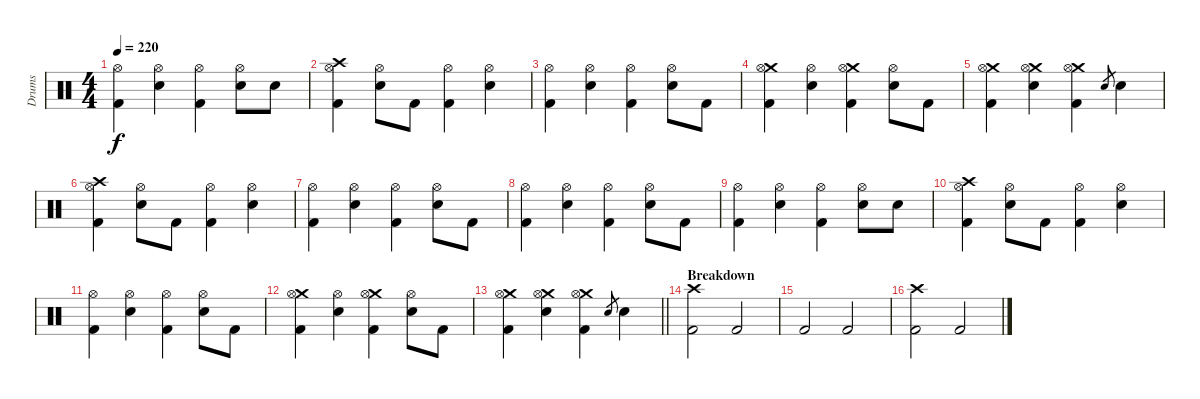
\track ("Drums" "Drums") {instrument percussion}
\staff {score}
\articulation defaults
\ts (4 4)
\tempo 220
\clef neutral
\ks c
("Hi-Hat (open)" "Kick (hit) 2").4{dy f} ("Hi-Hat (open)" "Snare (hit) 2").4 ("Hi-Hat (open)" "Kick (hit) 2").4 ("Hi-Hat (open)" "Snare (hit) 2").8 "Snare (hit) 2".8 |
("Crash high (hit)" "Hi-Hat (open)" "Kick (hit) 2").4 ("Hi-Hat (open)" "Snare (hit) 2").8 "Kick (hit) 2".8 ("Hi-Hat (open)" "Kick (hit) 2").4 ("Hi-Hat (open)" "Snare (hit) 2").4 |
("Hi-Hat (open)" "Kick (hit) 2").4 ("Hi-Hat (open)" "Snare (hit) 2").4 ("Hi-Hat (open)" "Kick (hit) 2").4 ("Hi-Hat (open)" "Snare (hit) 2").8 "Kick (hit) 2".8 |
("Crash medium (hit)" "Hi-Hat (open)" "Kick (hit) 2").4 ("Hi-Hat (open)" "Snare (hit) 2").4 ("Crash medium (hit)" "Hi-Hat (open)" "Kick (hit) 2").4 ("Hi-Hat (open)" "Snare (hit) 2").8 "Kick (hit) 2".8 |
("Crash medium (hit)" "Hi-Hat (open)" "Kick (hit) 2").4 ("Crash medium (hit)" "Hi-Hat (open)" "Snare (hit) 2").4 ("Crash medium (hit)" "Hi-Hat (open)" "Kick (hit) 2").4 "Snare (hit) 2".8{gr} "Snare (hit) 2".4 |
("Crash high (hit)" "Hi-Hat (open)" "Kick (hit) 2").4 ("Hi-Hat (open)" "Snare (hit) 2").8 "Kick (hit) 2".8 ("Hi-Hat (open)" "Kick (hit) 2").4 ("Hi-Hat (open)" "Snare (hit) 2").4 |
("Hi-Hat (open)" "Kick (hit) 2").4 ("Hi-Hat (open)" "Snare (hit) 2").4 ("Hi-Hat (open)" "Kick (hit) 2").4 ("Hi-Hat (open)" "Snare (hit) 2").8 "Kick (hit) 2".8 |
("Hi-Hat (open)" "Kick (hit) 2").4 ("Hi-Hat (open)" "Snare (hit) 2").4 ("Hi-Hat (open)" "Kick (hit) 2").4 ("Hi-Hat (open)" "Snare (hit) 2").8 "Kick (hit) 2".8 |
("Hi-Hat (open)" "Kick (hit) 2").4 ("Hi-Hat (open)" "Snare (hit) 2").4 ("Hi-Hat (open)" "Kick (hit) 2").4 ("Hi-Hat (open)" "Snare (hit) 2").8 "Snare (hit) 2".8 |
("Crash high (hit)" "Hi-Hat (open)" "Kick (hit) 2").4 ("Hi-Hat (open)" "Snare (hit) 2").8 "Kick (hit) 2".8 ("Hi-Hat (open)" "Kick (hit) 2").4 ("Hi-Hat (open)" "Snare (hit) 2").4 |
("Hi-Hat (open)" "Kick (hit) 2").4 ("Hi-Hat (open)" "Snare (hit) 2").4 ("Hi-Hat (open)" "Kick (hit) 2").4 ("Hi-Hat (open)" "Snare (hit) 2").8 "Kick (hit) 2".8 |
("Crash medium (hit)" "Hi-Hat (open)" "Kick (hit) 2").4 ("Hi-Hat (open)" "Snare (hit) 2").4 ("Crash medium (hit)" "Hi-Hat (open)" "Kick (hit) 2").4 ("Hi-Hat (open)" "Snare (hit) 2").8 "Kick (hit) 2".8 |
\barLineRight lightlight
("Crash medium (hit)" "Hi-Hat (open)" "Kick (hit) 2").4 ("Crash medium (hit)" "Hi-Hat (open)" "Snare (hit) 2").4 ("Crash medium (hit)" "Hi-Hat (open)" "Kick (hit) 2").4 "Snare (hit) 2".8{gr} "Snare (hit) 2".4 |
\section ("" "Breakdown")
("Crash high (hit)" "Kick (hit) 2").2 "Kick (hit) 2".2 |
"Kick (hit) 2".2 "Kick (hit) 2".2 |
("Crash high (hit)" "Kick (hit) 2").2 "Kick (hit) 2".2
